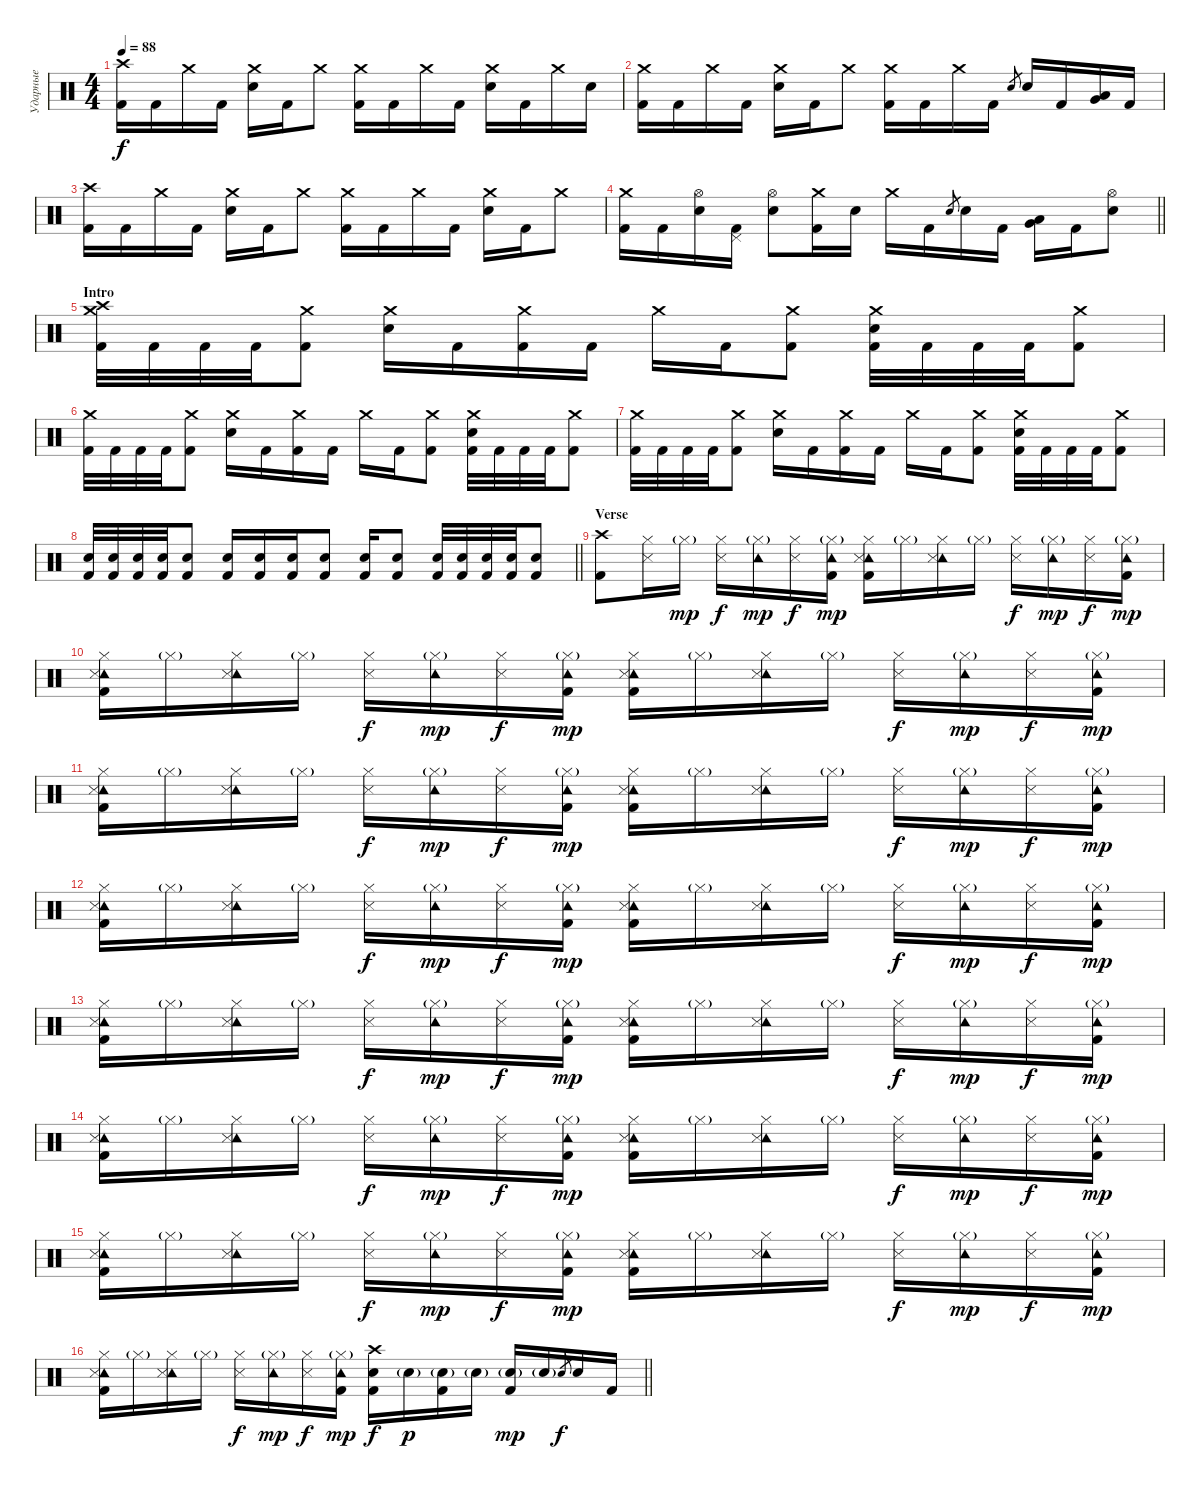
\track ("Ударные" "Ударные") {instrument percussion}
\staff {score}
\articulation defaults
\ts (4 4)
\tempo 88
\clef neutral
\ks c
("Crash high (hit)" "Kick (hit) 2").16{dy f} "Kick (hit) 2".16 "Crash medium (hit)".16 "Kick (hit) 2".16 ("Crash medium (hit)" "Electric Snare (hit)").16 "Kick (hit) 2".16 "Crash medium (hit)".8 ("Crash medium (hit)" "Kick (hit) 2").16 "Kick (hit) 2".16 "Crash medium (hit)".16 "Kick (hit) 2".16 ("Crash medium (hit)" "Electric Snare (hit)").16 "Kick (hit) 2".16 "Crash medium (hit)".16 "Electric Snare (hit)".16 |
("Crash medium (hit)" "Kick (hit) 2").16 "Kick (hit) 2".16 "Crash medium (hit)".16 "Kick (hit) 2".16 ("Crash medium (hit)" "Electric Snare (hit)").16 "Kick (hit) 2".16 "Crash medium (hit)".8 ("Crash medium (hit)" "Kick (hit) 2").16 "Kick (hit) 2".16 "Crash medium (hit)".16 "Kick (hit) 2".16 "Electric Snare (hit)".8{gr} "Electric Snare (hit)".16 "Kick (hit) 2".16 ("Low Tom (hit)" "Very Low Tom (hit)").16 "Kick (hit) 2".16 |
("Crash high (hit)" "Kick (hit) 2").16 "Kick (hit) 2".16 "Crash medium (hit)".16 "Kick (hit) 2".16 ("Crash medium (hit)" "Electric Snare (hit)").16 "Kick (hit) 2".16 "Crash medium (hit)".8 ("Crash medium (hit)" "Kick (hit) 2").16 "Kick (hit) 2".16 "Crash medium (hit)".16 "Kick (hit) 2".16 ("Crash medium (hit)" "Electric Snare (hit)").16 "Kick (hit) 2".16 "Crash medium (hit)".8 |
\barLineRight lightlight
("Crash medium (hit)" "Kick (hit) 2").16 "Kick (hit) 2".16 ("Hi-Hat (open)" "Electric Snare (hit)").16 ("Pedal Hi-Hat (hit)" "Kick (hit) 2").16 ("Hi-Hat (open)" "Electric Snare (hit)").8 ("Crash medium (hit)" "Kick (hit) 2").16 "Electric Snare (hit)".16 "Crash medium (hit)".16 "Kick (hit) 2".16 "Electric Snare (hit)".8{gr} "Electric Snare (hit)".16 "Kick (hit) 2".16 ("Low Tom (hit)" "Very Low Tom (hit)").16 "Kick (hit) 2".16 ("Hi-Hat (open)" "Electric Snare (hit)").8 |
\section ("" "Intro")
("Crash medium (hit)" "Crash high (hit)" "Kick (hit) 2").32 "Kick (hit) 2".32 "Kick (hit) 2".32 "Kick (hit) 2".32 ("Crash medium (hit)" "Kick (hit) 2").8 ("Crash medium (hit)" "Electric Snare (hit)").16 "Kick (hit) 2".16 ("Crash medium (hit)" "Kick (hit) 2").16 "Kick (hit) 2".16 "Crash medium (hit)".16 "Kick (hit) 2".16 ("Crash medium (hit)" "Kick (hit) 2").8 ("Crash medium (hit)" "Electric Snare (hit)" "Kick (hit) 2").32 "Kick (hit) 2".32 "Kick (hit) 2".32 "Kick (hit) 2".32 ("Crash medium (hit)" "Kick (hit) 2").8 |
("Crash medium (hit)" "Kick (hit) 2").32 "Kick (hit) 2".32 "Kick (hit) 2".32 "Kick (hit) 2".32 ("Crash medium (hit)" "Kick (hit) 2").8 ("Crash medium (hit)" "Electric Snare (hit)").16 "Kick (hit) 2".16 ("Crash medium (hit)" "Kick (hit) 2").16 "Kick (hit) 2".16 "Crash medium (hit)".16 "Kick (hit) 2".16 ("Crash medium (hit)" "Kick (hit) 2").8 ("Crash medium (hit)" "Electric Snare (hit)" "Kick (hit) 2").32 "Kick (hit) 2".32 "Kick (hit) 2".32 "Kick (hit) 2".32 ("Crash medium (hit)" "Kick (hit) 2").8 |
("Crash medium (hit)" "Kick (hit) 2").32 "Kick (hit) 2".32 "Kick (hit) 2".32 "Kick (hit) 2".32 ("Crash medium (hit)" "Kick (hit) 2").8 ("Crash medium (hit)" "Electric Snare (hit)").16 "Kick (hit) 2".16 ("Crash medium (hit)" "Kick (hit) 2").16 "Kick (hit) 2".16 "Crash medium (hit)".16 "Kick (hit) 2".16 ("Crash medium (hit)" "Kick (hit) 2").8 ("Crash medium (hit)" "Electric Snare (hit)" "Kick (hit) 2").32 "Kick (hit) 2".32 "Kick (hit) 2".32 "Kick (hit) 2".32 ("Crash medium (hit)" "Kick (hit) 2").8 |
\barLineRight lightlight
("Electric Snare (hit)" "Kick (hit) 2").32 ("Electric Snare (hit)" "Kick (hit) 2").32 ("Electric Snare (hit)" "Kick (hit) 2").32 ("Electric Snare (hit)" "Kick (hit) 2").32 ("Electric Snare (hit)" "Kick (hit) 2").8 ("Electric Snare (hit)" "Kick (hit) 2").16 ("Electric Snare (hit)" "Kick (hit) 2").16 ("Electric Snare (hit)" "Kick (hit) 2").16 ("Electric Snare (hit)" "Kick (hit) 2").8 ("Electric Snare (hit)" "Kick (hit) 2").16 ("Electric Snare (hit)" "Kick (hit) 2").8 ("Electric Snare (hit)" "Kick (hit) 2").32 ("Electric Snare (hit)" "Kick (hit) 2").32 ("Electric Snare (hit)" "Kick (hit) 2").32 ("Electric Snare (hit)" "Kick (hit) 2").32 ("Electric Snare (hit)" "Kick (hit) 2").8 |
\section ("" "Verse")
("Crash high (hit)" "Kick (hit) 2").8 ("Hi-Hat (closed)" "Snare (side stick) 3").16 "Hi-Hat (closed)"{g}.16{dy mp} ("Hi-Hat (closed)" "Snare (side stick) 3").16{dy f} ("Tambourine (hit)" "Hi-Hat (closed)"{g}).16{dy mp} ("Hi-Hat (closed)" "Snare (side stick) 3").16{dy f} ("Tambourine (hit)" "Hi-Hat (closed)"{g} "Kick (hit) 2").16{dy mp} ("Tambourine (hit)" "Hi-Hat (closed)" "Snare (side stick) 3" "Kick (hit) 2").16 "Hi-Hat (closed)"{g}.16 ("Tambourine (hit)" "Hi-Hat (closed)" "Snare (side stick) 3").16 "Hi-Hat (closed)"{g}.16 ("Hi-Hat (closed)" "Snare (side stick) 3").16{dy f} ("Tambourine (hit)" "Hi-Hat (closed)"{g}).16{dy mp} ("Hi-Hat (closed)" "Snare (side stick) 3").16{dy f} ("Tambourine (hit)" "Hi-Hat (closed)"{g} "Kick (hit) 2").16{dy mp} |
("Tambourine (hit)" "Hi-Hat (closed)" "Snare (side stick) 3" "Kick (hit) 2").16 "Hi-Hat (closed)"{g}.16 ("Tambourine (hit)" "Hi-Hat (closed)" "Snare (side stick) 3").16 "Hi-Hat (closed)"{g}.16 ("Hi-Hat (closed)" "Snare (side stick) 3").16{dy f} ("Tambourine (hit)" "Hi-Hat (closed)"{g}).16{dy mp} ("Hi-Hat (closed)" "Snare (side stick) 3").16{dy f} ("Tambourine (hit)" "Hi-Hat (closed)"{g} "Kick (hit) 2").16{dy mp} ("Tambourine (hit)" "Hi-Hat (closed)" "Snare (side stick) 3" "Kick (hit) 2").16 "Hi-Hat (closed)"{g}.16 ("Tambourine (hit)" "Hi-Hat (closed)" "Snare (side stick) 3").16 "Hi-Hat (closed)"{g}.16 ("Hi-Hat (closed)" "Snare (side stick) 3").16{dy f} ("Tambourine (hit)" "Hi-Hat (closed)"{g}).16{dy mp} ("Hi-Hat (closed)" "Snare (side stick) 3").16{dy f} ("Tambourine (hit)" "Hi-Hat (closed)"{g} "Kick (hit) 2").16{dy mp} |
("Tambourine (hit)" "Hi-Hat (closed)" "Snare (side stick) 3" "Kick (hit) 2").16 "Hi-Hat (closed)"{g}.16 ("Tambourine (hit)" "Hi-Hat (closed)" "Snare (side stick) 3").16 "Hi-Hat (closed)"{g}.16 ("Hi-Hat (closed)" "Snare (side stick) 3").16{dy f} ("Tambourine (hit)" "Hi-Hat (closed)"{g}).16{dy mp} ("Hi-Hat (closed)" "Snare (side stick) 3").16{dy f} ("Tambourine (hit)" "Hi-Hat (closed)"{g} "Kick (hit) 2").16{dy mp} ("Tambourine (hit)" "Hi-Hat (closed)" "Snare (side stick) 3" "Kick (hit) 2").16 "Hi-Hat (closed)"{g}.16 ("Tambourine (hit)" "Hi-Hat (closed)" "Snare (side stick) 3").16 "Hi-Hat (closed)"{g}.16 ("Hi-Hat (closed)" "Snare (side stick) 3").16{dy f} ("Tambourine (hit)" "Hi-Hat (closed)"{g}).16{dy mp} ("Hi-Hat (closed)" "Snare (side stick) 3").16{dy f} ("Tambourine (hit)" "Hi-Hat (closed)"{g} "Kick (hit) 2").16{dy mp} |
("Tambourine (hit)" "Hi-Hat (closed)" "Snare (side stick) 3" "Kick (hit) 2").16 "Hi-Hat (closed)"{g}.16 ("Tambourine (hit)" "Hi-Hat (closed)" "Snare (side stick) 3").16 "Hi-Hat (closed)"{g}.16 ("Hi-Hat (closed)" "Snare (side stick) 3").16{dy f} ("Tambourine (hit)" "Hi-Hat (closed)"{g}).16{dy mp} ("Hi-Hat (closed)" "Snare (side stick) 3").16{dy f} ("Tambourine (hit)" "Hi-Hat (closed)"{g} "Kick (hit) 2").16{dy mp} ("Tambourine (hit)" "Hi-Hat (closed)" "Snare (side stick) 3" "Kick (hit) 2").16 "Hi-Hat (closed)"{g}.16 ("Tambourine (hit)" "Hi-Hat (closed)" "Snare (side stick) 3").16 "Hi-Hat (closed)"{g}.16 ("Hi-Hat (closed)" "Snare (side stick) 3").16{dy f} ("Tambourine (hit)" "Hi-Hat (closed)"{g}).16{dy mp} ("Hi-Hat (closed)" "Snare (side stick) 3").16{dy f} ("Tambourine (hit)" "Hi-Hat (closed)"{g} "Kick (hit) 2").16{dy mp} |
("Tambourine (hit)" "Hi-Hat (closed)" "Snare (side stick) 3" "Kick (hit) 2").16 "Hi-Hat (closed)"{g}.16 ("Tambourine (hit)" "Hi-Hat (closed)" "Snare (side stick) 3").16 "Hi-Hat (closed)"{g}.16 ("Hi-Hat (closed)" "Snare (side stick) 3").16{dy f} ("Tambourine (hit)" "Hi-Hat (closed)"{g}).16{dy mp} ("Hi-Hat (closed)" "Snare (side stick) 3").16{dy f} ("Tambourine (hit)" "Hi-Hat (closed)"{g} "Kick (hit) 2").16{dy mp} ("Tambourine (hit)" "Hi-Hat (closed)" "Snare (side stick) 3" "Kick (hit) 2").16 "Hi-Hat (closed)"{g}.16 ("Tambourine (hit)" "Hi-Hat (closed)" "Snare (side stick) 3").16 "Hi-Hat (closed)"{g}.16 ("Hi-Hat (closed)" "Snare (side stick) 3").16{dy f} ("Tambourine (hit)" "Hi-Hat (closed)"{g}).16{dy mp} ("Hi-Hat (closed)" "Snare (side stick) 3").16{dy f} ("Tambourine (hit)" "Hi-Hat (closed)"{g} "Kick (hit) 2").16{dy mp} |
("Tambourine (hit)" "Hi-Hat (closed)" "Snare (side stick) 3" "Kick (hit) 2").16 "Hi-Hat (closed)"{g}.16 ("Tambourine (hit)" "Hi-Hat (closed)" "Snare (side stick) 3").16 "Hi-Hat (closed)"{g}.16 ("Hi-Hat (closed)" "Snare (side stick) 3").16{dy f} ("Tambourine (hit)" "Hi-Hat (closed)"{g}).16{dy mp} ("Hi-Hat (closed)" "Snare (side stick) 3").16{dy f} ("Tambourine (hit)" "Hi-Hat (closed)"{g} "Kick (hit) 2").16{dy mp} ("Tambourine (hit)" "Hi-Hat (closed)" "Snare (side stick) 3" "Kick (hit) 2").16 "Hi-Hat (closed)"{g}.16 ("Tambourine (hit)" "Hi-Hat (closed)" "Snare (side stick) 3").16 "Hi-Hat (closed)"{g}.16 ("Hi-Hat (closed)" "Snare (side stick) 3").16{dy f} ("Tambourine (hit)" "Hi-Hat (closed)"{g}).16{dy mp} ("Hi-Hat (closed)" "Snare (side stick) 3").16{dy f} ("Tambourine (hit)" "Hi-Hat (closed)"{g} "Kick (hit) 2").16{dy mp} |
("Tambourine (hit)" "Hi-Hat (closed)" "Snare (side stick) 3" "Kick (hit) 2").16 "Hi-Hat (closed)"{g}.16 ("Tambourine (hit)" "Hi-Hat (closed)" "Snare (side stick) 3").16 "Hi-Hat (closed)"{g}.16 ("Hi-Hat (closed)" "Snare (side stick) 3").16{dy f} ("Tambourine (hit)" "Hi-Hat (closed)"{g}).16{dy mp} ("Hi-Hat (closed)" "Snare (side stick) 3").16{dy f} ("Tambourine (hit)" "Hi-Hat (closed)"{g} "Kick (hit) 2").16{dy mp} ("Tambourine (hit)" "Hi-Hat (closed)" "Snare (side stick) 3" "Kick (hit) 2").16 "Hi-Hat (closed)"{g}.16 ("Tambourine (hit)" "Hi-Hat (closed)" "Snare (side stick) 3").16 "Hi-Hat (closed)"{g}.16 ("Hi-Hat (closed)" "Snare (side stick) 3").16{dy f} ("Tambourine (hit)" "Hi-Hat (closed)"{g}).16{dy mp} ("Hi-Hat (closed)" "Snare (side stick) 3").16{dy f} ("Tambourine (hit)" "Hi-Hat (closed)"{g} "Kick (hit) 2").16{dy mp} |
\barLineRight lightlight
("Tambourine (hit)" "Hi-Hat (closed)" "Snare (side stick) 3" "Kick (hit) 2").16 "Hi-Hat (closed)"{g}.16 ("Tambourine (hit)" "Hi-Hat (closed)" "Snare (side stick) 3").16 "Hi-Hat (closed)"{g}.16 ("Hi-Hat (closed)" "Snare (side stick) 3").16{dy f} ("Tambourine (hit)" "Hi-Hat (closed)"{g}).16{dy mp} ("Hi-Hat (closed)" "Snare (side stick) 3").16{dy f} ("Tambourine (hit)" "Hi-Hat (closed)"{g} "Kick (hit) 2").16{dy mp} ("Crash high (hit)" "Electric Snare (hit)" "Kick (hit) 2").16{dy f} "Electric Snare (hit)"{g}.16{dy p} ("Electric Snare (hit)"{g} "Kick (hit) 2").16 "Electric Snare (hit)"{g}.16 ("Electric Snare (hit)"{g} "Kick (hit) 2").16{dy mp} "Electric Snare (hit)"{g}.16 "Electric Snare (hit)".8{gr dy f} "Electric Snare (hit)".16 "Kick (hit) 2".16
